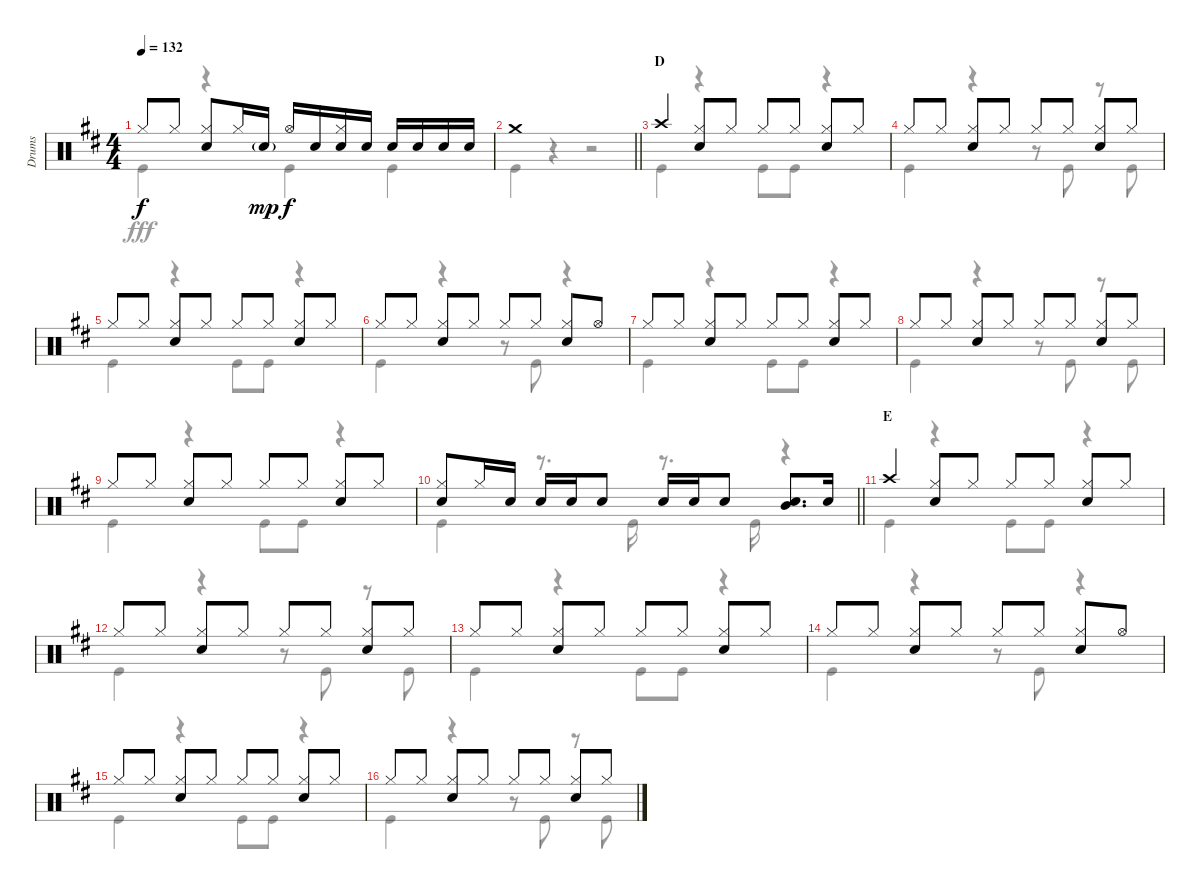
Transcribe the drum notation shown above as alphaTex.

\track ("Drums" "Drums") {instrument percussion}
\staff {score}
\articulation defaults
\voice
\ts (4 4)
\tempo 132
\clef neutral
\ks d "Hi-Hat (closed)".8{dy f} "Hi-Hat (closed)".8
("Hi-Hat (closed)" "Snare (hit) 2").8 "Hi-Hat (closed)".16 "Snare (hit) 2"{g}.16{dy mp} "Hi-Hat (open)".16{dy f} "Snare (hit) 2".16 ("Hi-Hat (closed)" "Snare (hit) 2").16 "Snare (hit) 2".16 "Snare (hit) 2".16 "Snare (hit) 2".16 "Snare (hit) 2".16 "Snare (hit) 2".16 |
\barLineRight lightlight "Crash medium (hit)".1
|
\section ("" "D")
"Crash high (hit)".4 ("Hi-Hat (closed)" "Snare (hit) 2").8 "Hi-Hat (closed)".8 "Hi-Hat (closed)".8 "Hi-Hat (closed)".8 ("Hi-Hat (closed)" "Snare (hit) 2").8 "Hi-Hat (closed)".8 |
"Hi-Hat (closed)".8 "Hi-Hat (closed)".8 ("Hi-Hat (closed)" "Snare (hit) 2").8 "Hi-Hat (closed)".8 "Hi-Hat (closed)".8 "Hi-Hat (closed)".8 ("Hi-Hat (closed)" "Snare (hit) 2").8 "Hi-Hat (closed)".8 |
"Hi-Hat (closed)".8 "Hi-Hat (closed)".8 ("Hi-Hat (closed)" "Snare (hit) 2").8 "Hi-Hat (closed)".8 "Hi-Hat (closed)".8 "Hi-Hat (closed)".8 ("Hi-Hat (closed)" "Snare (hit) 2").8 "Hi-Hat (closed)".8 |
"Hi-Hat (closed)".8 "Hi-Hat (closed)".8 ("Hi-Hat (closed)" "Snare (hit) 2").8 "Hi-Hat (closed)".8 "Hi-Hat (closed)".8 "Hi-Hat (closed)".8 ("Hi-Hat (closed)" "Snare (hit) 2").8 "Hi-Hat (open)".8 |
"Hi-Hat (closed)".8 "Hi-Hat (closed)".8 ("Hi-Hat (closed)" "Snare (hit) 2").8 "Hi-Hat (closed)".8 "Hi-Hat (closed)".8 "Hi-Hat (closed)".8 ("Hi-Hat (closed)" "Snare (hit) 2").8 "Hi-Hat (closed)".8 |
"Hi-Hat (closed)".8 "Hi-Hat (closed)".8 ("Hi-Hat (closed)" "Snare (hit) 2").8 "Hi-Hat (closed)".8 "Hi-Hat (closed)".8 "Hi-Hat (closed)".8 ("Hi-Hat (closed)" "Snare (hit) 2").8 "Hi-Hat (closed)".8 |
"Hi-Hat (closed)".8 "Hi-Hat (closed)".8 ("Hi-Hat (closed)" "Snare (hit) 2").8 "Hi-Hat (closed)".8 "Hi-Hat (closed)".8 "Hi-Hat (closed)".8 ("Hi-Hat (closed)" "Snare (hit) 2").8 "Hi-Hat (closed)".8 |
\barLineRight lightlight
("Hi-Hat (closed)" "Snare (hit) 2").8 "Hi-Hat (closed)".16 "Snare (hit) 2".16 "Snare (hit) 2".16 "Snare (hit) 2".16 "Snare (hit) 2".8 "Snare (hit) 2".16 "Snare (hit) 2".16 "Snare (hit) 2".8 ("Snare (hit) 2" "Mid Tom (hit)").8{d} "Snare (hit) 2".16 |
\section ("" "E")
"Crash high (hit)".4 ("Hi-Hat (closed)" "Snare (hit) 2").8 "Hi-Hat (closed)".8 "Hi-Hat (closed)".8 "Hi-Hat (closed)".8 ("Hi-Hat (closed)" "Snare (hit) 2").8 "Hi-Hat (closed)".8 |
"Hi-Hat (closed)".8 "Hi-Hat (closed)".8 ("Hi-Hat (closed)" "Snare (hit) 2").8 "Hi-Hat (closed)".8 "Hi-Hat (closed)".8 "Hi-Hat (closed)".8 ("Hi-Hat (closed)" "Snare (hit) 2").8 "Hi-Hat (closed)".8 |
"Hi-Hat (closed)".8 "Hi-Hat (closed)".8 ("Hi-Hat (closed)" "Snare (hit) 2").8 "Hi-Hat (closed)".8 "Hi-Hat (closed)".8 "Hi-Hat (closed)".8 ("Hi-Hat (closed)" "Snare (hit) 2").8 "Hi-Hat (closed)".8 |
"Hi-Hat (closed)".8 "Hi-Hat (closed)".8 ("Hi-Hat (closed)" "Snare (hit) 2").8 "Hi-Hat (closed)".8 "Hi-Hat (closed)".8 "Hi-Hat (closed)".8 ("Hi-Hat (closed)" "Snare (hit) 2").8 "Hi-Hat (open)".8 |
"Hi-Hat (closed)".8 "Hi-Hat (closed)".8 ("Hi-Hat (closed)" "Snare (hit) 2").8 "Hi-Hat (closed)".8 "Hi-Hat (closed)".8 "Hi-Hat (closed)".8 ("Hi-Hat (closed)" "Snare (hit) 2").8 "Hi-Hat (closed)".8 |
"Hi-Hat (closed)".8 "Hi-Hat (closed)".8 ("Hi-Hat (closed)" "Snare (hit) 2").8 "Hi-Hat (closed)".8 "Hi-Hat (closed)".8 "Hi-Hat (closed)".8 ("Hi-Hat (closed)" "Snare (hit) 2").8 "Hi-Hat (closed)".8
\voice
\clef neutral
\ottava regular
\simile none
\ks d "Kick (hit)".4{dy fff}
r.4 "Kick (hit)".4 "Kick (hit)".4 |
\barLineRight lightlight "Kick (hit)".4
r.4 r.2 |
"Kick (hit)".4 r.4 "Kick (hit)".8 "Kick (hit)".8 r.4 |
"Kick (hit)".4 r.4 r.8 "Kick (hit)".8 r.8 "Kick (hit)".8 |
"Kick (hit)".4 r.4 "Kick (hit)".8 "Kick (hit)".8 r.4 |
"Kick (hit)".4 r.4 r.8 "Kick (hit)".8 r.4 |
"Kick (hit)".4 r.4 "Kick (hit)".8 "Kick (hit)".8 r.4 |
"Kick (hit)".4 r.4 r.8 "Kick (hit)".8 r.8 "Kick (hit)".8 |
"Kick (hit)".4 r.4 "Kick (hit)".8 "Kick (hit)".8 r.4 |
\barLineRight lightlight "Kick (hit)".4
r.8{d} "Kick (hit)".16 r.8{d} "Kick (hit)".16 r.4 |
"Kick (hit)".4 r.4 "Kick (hit)".8 "Kick (hit)".8 r.4 |
"Kick (hit)".4 r.4 r.8 "Kick (hit)".8 r.8 "Kick (hit)".8 |
"Kick (hit)".4 r.4 "Kick (hit)".8 "Kick (hit)".8 r.4 |
"Kick (hit)".4 r.4 r.8 "Kick (hit)".8 r.4 |
"Kick (hit)".4 r.4 "Kick (hit)".8 "Kick (hit)".8 r.4 |
"Kick (hit)".4 r.4 r.8 "Kick (hit)".8 r.8 "Kick (hit)".8
